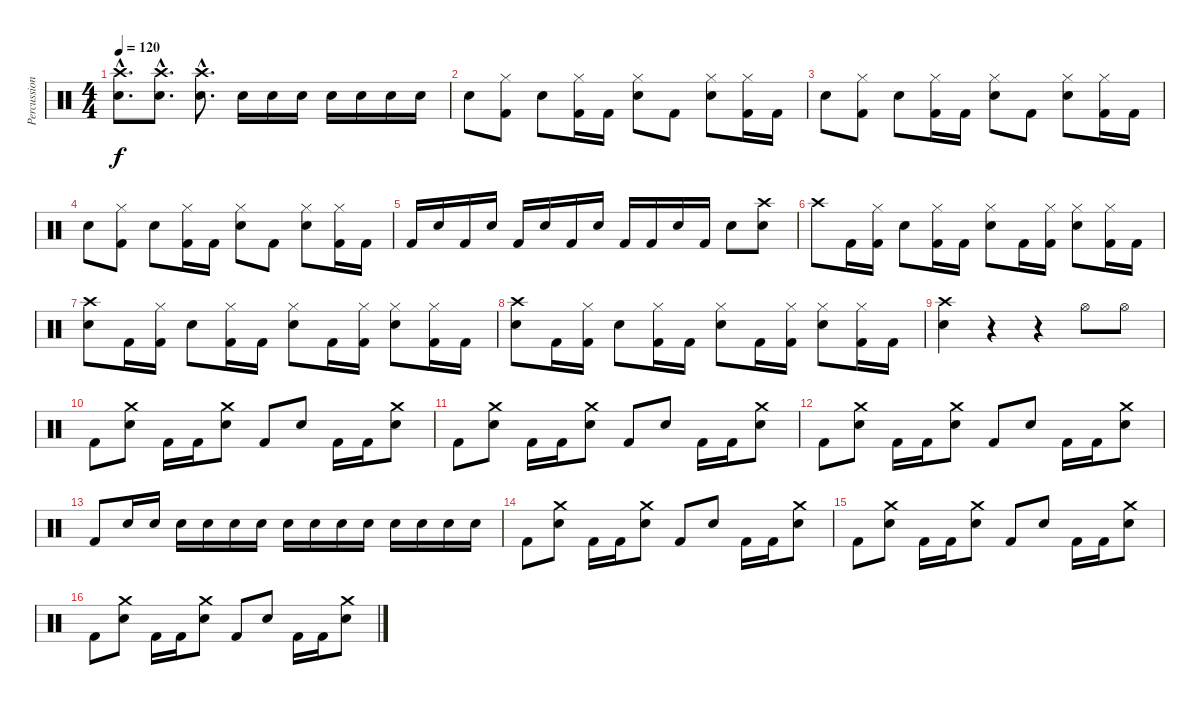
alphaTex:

\track ("Percussions" "Percussion") {instrument percussion}
\staff {score}
\articulation defaults
\ts (4 4)
\tempo 120
\clef neutral
\ks c
("Crash high (hit)"{hac} "Snare (hit) 2"{hac}).8{d dy f} ("Crash high (hit)"{hac} "Snare (hit) 2"{hac}).8{d} ("Crash high (hit)"{hac} "Snare (hit) 2"{hac}).8{d} "Snare (hit) 2".16 "Snare (hit) 2".16 "Snare (hit) 2".16 "Snare (hit) 2".16 "Snare (hit) 2".16 "Snare (hit) 2".16 "Snare (hit) 2".16 |
"Snare (hit) 2".8 ("Hi-Hat (closed)" "Kick (hit) 2").8 "Snare (hit) 2".8 ("Hi-Hat (closed)" "Kick (hit) 2").16 "Kick (hit) 2".16 ("Hi-Hat (closed)" "Snare (hit) 2").8 "Kick (hit) 2".8 ("Hi-Hat (closed)" "Snare (hit) 2").8 ("Hi-Hat (closed)" "Kick (hit) 2").16 "Kick (hit) 2".16 |
"Snare (hit) 2".8 ("Hi-Hat (closed)" "Kick (hit) 2").8 "Snare (hit) 2".8 ("Hi-Hat (closed)" "Kick (hit) 2").16 "Kick (hit) 2".16 ("Hi-Hat (closed)" "Snare (hit) 2").8 "Kick (hit) 2".8 ("Hi-Hat (closed)" "Snare (hit) 2").8 ("Hi-Hat (closed)" "Kick (hit) 2").16 "Kick (hit) 2".16 |
"Snare (hit) 2".8 ("Hi-Hat (closed)" "Kick (hit) 2").8 "Snare (hit) 2".8 ("Hi-Hat (closed)" "Kick (hit) 2").16 "Kick (hit) 2".16 ("Hi-Hat (closed)" "Snare (hit) 2").8 "Kick (hit) 2".8 ("Hi-Hat (closed)" "Snare (hit) 2").8 ("Hi-Hat (closed)" "Kick (hit) 2").16 "Kick (hit) 2".16 |
"Kick (hit) 2".16 "Snare (hit) 2".16 "Kick (hit) 2".16 "Snare (hit) 2".16 "Kick (hit) 2".16 "Snare (hit) 2".16 "Kick (hit) 2".16 "Snare (hit) 2".16 "Kick (hit) 2".16 "Kick (hit) 2".16 "Snare (hit) 2".16 "Kick (hit) 2".16 "Snare (hit) 2".8 ("Crash high (hit)" "Snare (hit) 2").8 |
"Crash high (hit)".8 "Kick (hit) 2".16 ("Hi-Hat (closed)" "Kick (hit) 2").16 "Snare (hit) 2".8 ("Hi-Hat (closed)" "Kick (hit) 2").16 "Kick (hit) 2".16 ("Hi-Hat (closed)" "Snare (hit) 2").8 "Kick (hit) 2".16 ("Hi-Hat (closed)" "Kick (hit) 2").16 ("Hi-Hat (closed)" "Snare (hit) 2").8 ("Hi-Hat (closed)" "Kick (hit) 2").16 "Kick (hit) 2".16 |
("Crash high (hit)" "Snare (hit) 2").8 "Kick (hit) 2".16 ("Hi-Hat (closed)" "Kick (hit) 2").16 "Snare (hit) 2".8 ("Hi-Hat (closed)" "Kick (hit) 2").16 "Kick (hit) 2".16 ("Hi-Hat (closed)" "Snare (hit) 2").8 "Kick (hit) 2".16 ("Hi-Hat (closed)" "Kick (hit) 2").16 ("Hi-Hat (closed)" "Snare (hit) 2").8 ("Hi-Hat (closed)" "Kick (hit) 2").16 "Kick (hit) 2".16 |
("Crash high (hit)" "Snare (hit) 2").8 "Kick (hit) 2".16 ("Hi-Hat (closed)" "Kick (hit) 2").16 "Snare (hit) 2".8 ("Hi-Hat (closed)" "Kick (hit) 2").16 "Kick (hit) 2".16 ("Hi-Hat (closed)" "Snare (hit) 2").8 "Kick (hit) 2".16 ("Hi-Hat (closed)" "Kick (hit) 2").16 ("Hi-Hat (closed)" "Snare (hit) 2").8 ("Hi-Hat (closed)" "Kick (hit) 2").16 "Kick (hit) 2".16 |
("Snare (hit) 2" "Crash high (hit)").4 r.4 r.4 "Hi-Hat (open)".8 "Hi-Hat (open)".8 |
"Kick (hit) 2".8 ("Crash medium (hit)" "Snare (hit) 2").8 "Kick (hit) 2".16 "Kick (hit) 2".16 ("Crash medium (hit)" "Snare (hit) 2").8 "Kick (hit) 2".8 "Snare (hit) 2".8 "Kick (hit) 2".16 "Kick (hit) 2".16 ("Crash medium (hit)" "Snare (hit) 2").8 |
"Kick (hit) 2".8 ("Crash medium (hit)" "Snare (hit) 2").8 "Kick (hit) 2".16 "Kick (hit) 2".16 ("Crash medium (hit)" "Snare (hit) 2").8 "Kick (hit) 2".8 "Snare (hit) 2".8 "Kick (hit) 2".16 "Kick (hit) 2".16 ("Crash medium (hit)" "Snare (hit) 2").8 |
"Kick (hit) 2".8 ("Crash medium (hit)" "Snare (hit) 2").8 "Kick (hit) 2".16 "Kick (hit) 2".16 ("Crash medium (hit)" "Snare (hit) 2").8 "Kick (hit) 2".8 "Snare (hit) 2".8 "Kick (hit) 2".16 "Kick (hit) 2".16 ("Crash medium (hit)" "Snare (hit) 2").8 |
"Kick (hit) 2".8 "Snare (hit) 2".16 "Snare (hit) 2".16 "Snare (hit) 2".16 "Snare (hit) 2".16 "Snare (hit) 2".16 "Snare (hit) 2".16 "Snare (hit) 2".16 "Snare (hit) 2".16 "Snare (hit) 2".16 "Snare (hit) 2".16 "Snare (hit) 2".16 "Snare (hit) 2".16 "Snare (hit) 2".16 "Snare (hit) 2".16 |
"Kick (hit) 2".8 ("Crash medium (hit)" "Snare (hit) 2").8 "Kick (hit) 2".16 "Kick (hit) 2".16 ("Crash medium (hit)" "Snare (hit) 2").8 "Kick (hit) 2".8 "Snare (hit) 2".8 "Kick (hit) 2".16 "Kick (hit) 2".16 ("Crash medium (hit)" "Snare (hit) 2").8 |
"Kick (hit) 2".8 ("Crash medium (hit)" "Snare (hit) 2").8 "Kick (hit) 2".16 "Kick (hit) 2".16 ("Crash medium (hit)" "Snare (hit) 2").8 "Kick (hit) 2".8 "Snare (hit) 2".8 "Kick (hit) 2".16 "Kick (hit) 2".16 ("Crash medium (hit)" "Snare (hit) 2").8 |
"Kick (hit) 2".8 ("Crash medium (hit)" "Snare (hit) 2").8 "Kick (hit) 2".16 "Kick (hit) 2".16 ("Crash medium (hit)" "Snare (hit) 2").8 "Kick (hit) 2".8 "Snare (hit) 2".8 "Kick (hit) 2".16 "Kick (hit) 2".16 ("Crash medium (hit)" "Snare (hit) 2").8
